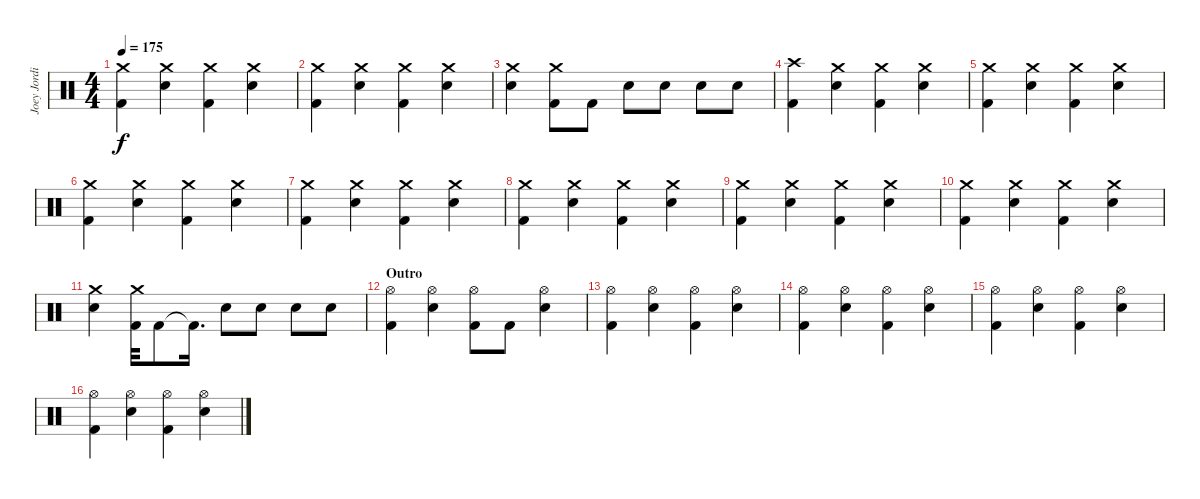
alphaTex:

\track ("Joey Jordison (Drums)" "Joey Jordi") {instrument percussion}
\staff {score}
\articulation defaults
\ts (4 4)
\tempo 175
\clef neutral
\ks c
("Crash medium (hit)" "Kick (hit) 2").4{dy f} ("Crash medium (hit)" "Electric Snare (hit)").4 ("Crash medium (hit)" "Kick (hit) 2").4 ("Crash medium (hit)" "Electric Snare (hit)").4 |
("Crash medium (hit)" "Kick (hit) 2").4 ("Crash medium (hit)" "Electric Snare (hit)").4 ("Crash medium (hit)" "Kick (hit) 2").4 ("Crash medium (hit)" "Electric Snare (hit)").4 |
("Crash medium (hit)" "Electric Snare (hit)").4 ("Crash medium (hit)" "Kick (hit) 2").8 "Kick (hit) 2".8 "Electric Snare (hit)".8 "Electric Snare (hit)".8 "Electric Snare (hit)".8 "Electric Snare (hit)".8 |
("Crash high (hit)" "Kick (hit) 2").4 ("Crash medium (hit)" "Electric Snare (hit)").4 ("Crash medium (hit)" "Kick (hit) 2").4 ("Crash medium (hit)" "Electric Snare (hit)").4 |
("Crash medium (hit)" "Kick (hit) 2").4 ("Crash medium (hit)" "Electric Snare (hit)").4 ("Crash medium (hit)" "Kick (hit) 2").4 ("Crash medium (hit)" "Electric Snare (hit)").4 |
("Crash medium (hit)" "Kick (hit) 2").4 ("Crash medium (hit)" "Electric Snare (hit)").4 ("Crash medium (hit)" "Kick (hit) 2").4 ("Crash medium (hit)" "Electric Snare (hit)").4 |
("Crash medium (hit)" "Kick (hit) 2").4 ("Crash medium (hit)" "Electric Snare (hit)").4 ("Crash medium (hit)" "Kick (hit) 2").4 ("Crash medium (hit)" "Electric Snare (hit)").4 |
("Crash medium (hit)" "Kick (hit) 2").4 ("Crash medium (hit)" "Electric Snare (hit)").4 ("Crash medium (hit)" "Kick (hit) 2").4 ("Crash medium (hit)" "Electric Snare (hit)").4 |
("Crash medium (hit)" "Kick (hit) 2").4 ("Crash medium (hit)" "Electric Snare (hit)").4 ("Crash medium (hit)" "Kick (hit) 2").4 ("Crash medium (hit)" "Electric Snare (hit)").4 |
("Crash medium (hit)" "Kick (hit) 2").4 ("Crash medium (hit)" "Electric Snare (hit)").4 ("Crash medium (hit)" "Kick (hit) 2").4 ("Crash medium (hit)" "Electric Snare (hit)").4 |
("Crash medium (hit)" "Electric Snare (hit)").4 ("Crash medium (hit)" "Kick (hit) 2").32 "Kick (hit) 2".8 "Kick (hit) 2"{t}.16{d} "Electric Snare (hit)".8 "Electric Snare (hit)".8 "Electric Snare (hit)".8 "Electric Snare (hit)".8 |
\section ("" "Outro")
("Hi-Hat (open)" "Kick (hit) 2").4 ("Hi-Hat (open)" "Electric Snare (hit)").4 ("Hi-Hat (open)" "Kick (hit) 2").8 "Kick (hit) 2".8 ("Hi-Hat (open)" "Electric Snare (hit)").4 |
("Hi-Hat (open)" "Kick (hit) 2").4 ("Hi-Hat (open)" "Electric Snare (hit)").4 ("Hi-Hat (open)" "Kick (hit) 2").4 ("Hi-Hat (open)" "Electric Snare (hit)").4 |
("Hi-Hat (open)" "Kick (hit) 2").4 ("Hi-Hat (open)" "Electric Snare (hit)").4 ("Hi-Hat (open)" "Kick (hit) 2").4 ("Hi-Hat (open)" "Electric Snare (hit)").4 |
("Hi-Hat (open)" "Kick (hit) 2").4 ("Hi-Hat (open)" "Electric Snare (hit)").4 ("Hi-Hat (open)" "Kick (hit) 2").4 ("Hi-Hat (open)" "Electric Snare (hit)").4 |
("Hi-Hat (open)" "Kick (hit) 2").4 ("Hi-Hat (open)" "Electric Snare (hit)").4 ("Hi-Hat (open)" "Kick (hit) 2").4 ("Hi-Hat (open)" "Electric Snare (hit)").4
